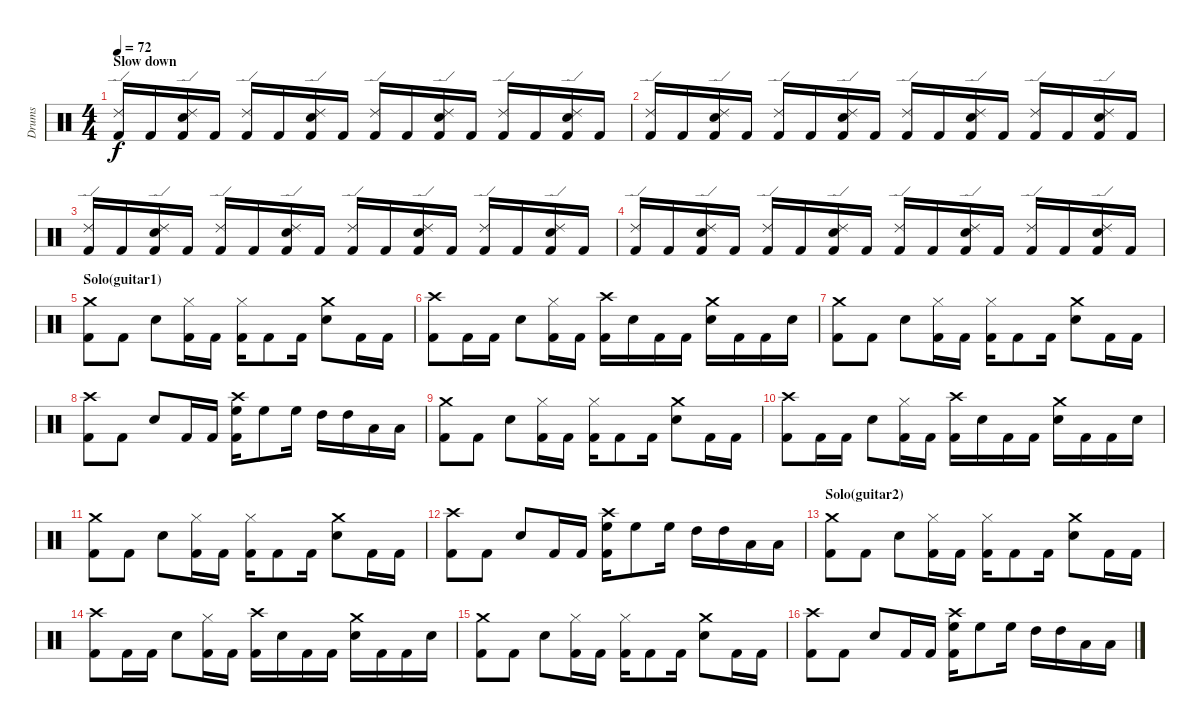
\track ("Drums" "Drums") {instrument percussion}
\staff {score}
\articulation defaults
\ts (4 4)
\section ("" "Slow down")
\tempo 72
\clef neutral
\ks c
("Ride (edge) 2" "Kick (hit) 2").16{dy f} "Kick (hit) 2".16 ("Electric Snare (hit)" "Ride (edge) 2" "Kick (hit) 2").16 "Kick (hit) 2".16 ("Ride (edge) 2" "Kick (hit) 2").16 "Kick (hit) 2".16 ("Electric Snare (hit)" "Ride (edge) 2" "Kick (hit) 2").16 "Kick (hit) 2".16 ("Ride (edge) 2" "Kick (hit) 2").16 "Kick (hit) 2".16 ("Electric Snare (hit)" "Ride (edge) 2" "Kick (hit) 2").16 "Kick (hit) 2".16 ("Ride (edge) 2" "Kick (hit) 2").16 "Kick (hit) 2".16 ("Electric Snare (hit)" "Ride (edge) 2" "Kick (hit) 2").16 "Kick (hit) 2".16 |
("Ride (edge) 2" "Kick (hit) 2").16 "Kick (hit) 2".16 ("Electric Snare (hit)" "Ride (edge) 2" "Kick (hit) 2").16 "Kick (hit) 2".16 ("Ride (edge) 2" "Kick (hit) 2").16 "Kick (hit) 2".16 ("Electric Snare (hit)" "Ride (edge) 2" "Kick (hit) 2").16 "Kick (hit) 2".16 ("Ride (edge) 2" "Kick (hit) 2").16 "Kick (hit) 2".16 ("Electric Snare (hit)" "Ride (edge) 2" "Kick (hit) 2").16 "Kick (hit) 2".16 ("Ride (edge) 2" "Kick (hit) 2").16 "Kick (hit) 2".16 ("Electric Snare (hit)" "Ride (edge) 2" "Kick (hit) 2").16 "Kick (hit) 2".16 |
("Ride (edge) 2" "Kick (hit) 2").16 "Kick (hit) 2".16 ("Electric Snare (hit)" "Ride (edge) 2" "Kick (hit) 2").16 "Kick (hit) 2".16 ("Ride (edge) 2" "Kick (hit) 2").16 "Kick (hit) 2".16 ("Electric Snare (hit)" "Ride (edge) 2" "Kick (hit) 2").16 "Kick (hit) 2".16 ("Ride (edge) 2" "Kick (hit) 2").16 "Kick (hit) 2".16 ("Electric Snare (hit)" "Ride (edge) 2" "Kick (hit) 2").16 "Kick (hit) 2".16 ("Ride (edge) 2" "Kick (hit) 2").16 "Kick (hit) 2".16 ("Electric Snare (hit)" "Ride (edge) 2" "Kick (hit) 2").16 "Kick (hit) 2".16 |
("Ride (edge) 2" "Kick (hit) 2").16 "Kick (hit) 2".16 ("Electric Snare (hit)" "Ride (edge) 2" "Kick (hit) 2").16 "Kick (hit) 2".16 ("Ride (edge) 2" "Kick (hit) 2").16 "Kick (hit) 2".16 ("Electric Snare (hit)" "Ride (edge) 2" "Kick (hit) 2").16 "Kick (hit) 2".16 ("Ride (edge) 2" "Kick (hit) 2").16 "Kick (hit) 2".16 ("Electric Snare (hit)" "Ride (edge) 2" "Kick (hit) 2").16 "Kick (hit) 2".16 ("Ride (edge) 2" "Kick (hit) 2").16 "Kick (hit) 2".16 ("Electric Snare (hit)" "Ride (edge) 2" "Kick (hit) 2").16 "Kick (hit) 2".16 |
\section ("" "Solo(guitar1)")
("Crash medium (hit)" "Kick (hit) 2").8 "Kick (hit) 2".8 "Electric Snare (hit)".8 ("Hi-Hat (closed)" "Kick (hit) 2").16 "Kick (hit) 2".16 ("Hi-Hat (closed)" "Kick (hit) 2").16 "Kick (hit) 2".8 "Kick (hit) 2".16 ("Crash medium (hit)" "Electric Snare (hit)").8 "Kick (hit) 2".16 "Kick (hit) 2".16 |
("Crash high (hit)" "Kick (hit) 2").8 "Kick (hit) 2".16 "Kick (hit) 2".16 "Electric Snare (hit)".8 ("Hi-Hat (closed)" "Kick (hit) 2").16 "Kick (hit) 2".16 ("Crash high (hit)" "Kick (hit) 2").16 "Electric Snare (hit)".16 "Kick (hit) 2".16 "Kick (hit) 2".16 ("Crash medium (hit)" "Electric Snare (hit)").16 "Kick (hit) 2".16 "Kick (hit) 2".16 "Electric Snare (hit)".16 |
("Crash medium (hit)" "Kick (hit) 2").8 "Kick (hit) 2".8 "Electric Snare (hit)".8 ("Hi-Hat (closed)" "Kick (hit) 2").16 "Kick (hit) 2".16 ("Hi-Hat (closed)" "Kick (hit) 2").16 "Kick (hit) 2".8 "Kick (hit) 2".16 ("Crash medium (hit)" "Electric Snare (hit)").8 "Kick (hit) 2".16 "Kick (hit) 2".16 |
("Crash high (hit)" "Kick (hit) 2").8 "Kick (hit) 2".8 "Electric Snare (hit)".8 "Kick (hit) 2".16 "Kick (hit) 2".16 ("Crash high (hit)" "High Floor Tom (hit)" "Kick (hit) 2").16 "High Floor Tom (hit)".8 "High Floor Tom (hit)".16 "High Tom (hit)".16 "High Tom (hit)".16 "Low Tom (hit)".16 "Low Tom (hit)".16 |
("Crash medium (hit)" "Kick (hit) 2").8 "Kick (hit) 2".8 "Electric Snare (hit)".8 ("Hi-Hat (closed)" "Kick (hit) 2").16 "Kick (hit) 2".16 ("Hi-Hat (closed)" "Kick (hit) 2").16 "Kick (hit) 2".8 "Kick (hit) 2".16 ("Crash medium (hit)" "Electric Snare (hit)").8 "Kick (hit) 2".16 "Kick (hit) 2".16 |
("Crash high (hit)" "Kick (hit) 2").8 "Kick (hit) 2".16 "Kick (hit) 2".16 "Electric Snare (hit)".8 ("Hi-Hat (closed)" "Kick (hit) 2").16 "Kick (hit) 2".16 ("Crash high (hit)" "Kick (hit) 2").16 "Electric Snare (hit)".16 "Kick (hit) 2".16 "Kick (hit) 2".16 ("Crash medium (hit)" "Electric Snare (hit)").16 "Kick (hit) 2".16 "Kick (hit) 2".16 "Electric Snare (hit)".16 |
("Crash medium (hit)" "Kick (hit) 2").8 "Kick (hit) 2".8 "Electric Snare (hit)".8 ("Hi-Hat (closed)" "Kick (hit) 2").16 "Kick (hit) 2".16 ("Hi-Hat (closed)" "Kick (hit) 2").16 "Kick (hit) 2".8 "Kick (hit) 2".16 ("Crash medium (hit)" "Electric Snare (hit)").8 "Kick (hit) 2".16 "Kick (hit) 2".16 |
("Crash high (hit)" "Kick (hit) 2").8 "Kick (hit) 2".8 "Electric Snare (hit)".8 "Kick (hit) 2".16 "Kick (hit) 2".16 ("Crash high (hit)" "High Floor Tom (hit)" "Kick (hit) 2").16 "High Floor Tom (hit)".8 "High Floor Tom (hit)".16 "High Tom (hit)".16 "High Tom (hit)".16 "Low Tom (hit)".16 "Low Tom (hit)".16 |
\section ("" "Solo(guitar2)")
("Crash medium (hit)" "Kick (hit) 2").8 "Kick (hit) 2".8 "Electric Snare (hit)".8 ("Hi-Hat (closed)" "Kick (hit) 2").16 "Kick (hit) 2".16 ("Hi-Hat (closed)" "Kick (hit) 2").16 "Kick (hit) 2".8 "Kick (hit) 2".16 ("Crash medium (hit)" "Electric Snare (hit)").8 "Kick (hit) 2".16 "Kick (hit) 2".16 |
("Crash high (hit)" "Kick (hit) 2").8 "Kick (hit) 2".16 "Kick (hit) 2".16 "Electric Snare (hit)".8 ("Hi-Hat (closed)" "Kick (hit) 2").16 "Kick (hit) 2".16 ("Crash high (hit)" "Kick (hit) 2").16 "Electric Snare (hit)".16 "Kick (hit) 2".16 "Kick (hit) 2".16 ("Crash medium (hit)" "Electric Snare (hit)").16 "Kick (hit) 2".16 "Kick (hit) 2".16 "Electric Snare (hit)".16 |
("Crash medium (hit)" "Kick (hit) 2").8 "Kick (hit) 2".8 "Electric Snare (hit)".8 ("Hi-Hat (closed)" "Kick (hit) 2").16 "Kick (hit) 2".16 ("Hi-Hat (closed)" "Kick (hit) 2").16 "Kick (hit) 2".8 "Kick (hit) 2".16 ("Crash medium (hit)" "Electric Snare (hit)").8 "Kick (hit) 2".16 "Kick (hit) 2".16 |
("Crash high (hit)" "Kick (hit) 2").8 "Kick (hit) 2".8 "Electric Snare (hit)".8 "Kick (hit) 2".16 "Kick (hit) 2".16 ("Crash high (hit)" "High Floor Tom (hit)" "Kick (hit) 2").16 "High Floor Tom (hit)".8 "High Floor Tom (hit)".16 "High Tom (hit)".16 "High Tom (hit)".16 "Low Tom (hit)".16 "Low Tom (hit)".16
